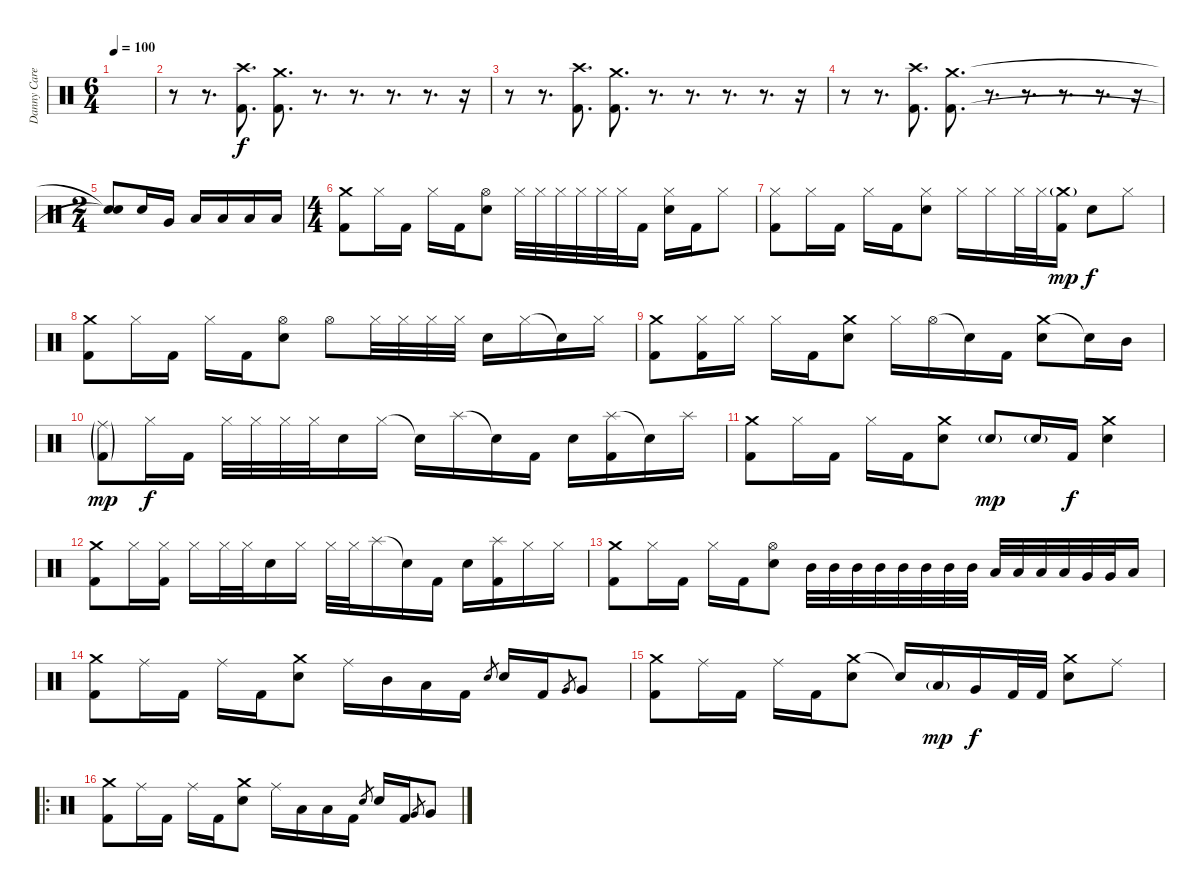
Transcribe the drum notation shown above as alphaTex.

\track ("Danny Carey" "Danny Care") {instrument percussion}
\staff {score}
\articulation defaults
\ts (6 4)
\tempo 100
\clef neutral
\ks c
|
r.8 r.8{d} ("Crash high (hit)" "Kick (hit) 2").8{d} ("Crash medium (hit)" "Kick (hit) 2").8{d} r.8{d} r.8{d} r.8{d} r.8{d} r.16 |
r.8 r.8{d} ("Crash high (hit)" "Kick (hit) 2").8{d} ("Crash medium (hit)" "Kick (hit) 2").8{d} r.8{d} r.8{d} r.8{d} r.8{d} r.16 |
r.8 r.8{d} ("Crash high (hit)" "Kick (hit) 2").8{d} ("Crash medium (hit)" "Kick (hit) 2").8{d} r.8{d} r.8{d} r.8{d} r.8{d} r.16 |
\ts (2 4)
("Snare (hit)"{t} "Snare (hit)"{t}).8 "Snare (hit) 2".16 "Very Low Tom (hit)".16 "Low Tom (hit)".16 "Low Floor Tom (hit)".16 "Low Floor Tom (hit)".16 "Low Floor Tom (hit)".16 |
\ts (4 4)
("Crash medium (hit)" "Kick (hit) 2").8 "Hi-Hat (closed)".16 "Kick (hit) 2".16 "Hi-Hat (closed)".16 "Kick (hit) 2".16 ("Hi-Hat (open)" "Snare (hit) 2").8 "Hi-Hat (closed)".32 "Hi-Hat (closed)".32 "Hi-Hat (closed)".32 "Hi-Hat (closed)".32 "Hi-Hat (closed)".32 "Hi-Hat (closed)".32 "Kick (hit) 2".16 ("Hi-Hat (closed)" "Snare (hit) 2").16 "Kick (hit) 2".16 "Hi-Hat (closed)".8 |
("Hi-Hat (closed)" "Kick (hit) 2").8 "Hi-Hat (closed)".16 "Kick (hit) 2".16 "Hi-Hat (closed)".16 "Kick (hit) 2".16 ("Hi-Hat (closed)" "Snare (hit) 2").8 "Hi-Hat (closed)".16 "Hi-Hat (closed)".16 "Hi-Hat (closed)".32 "Hi-Hat (closed)".32 ("Crash medium (hit)"{g} "Kick (hit) 2").16{dy mp} "Snare (hit) 2".8{dy f} "Hi-Hat (closed)".8 |
("Crash medium (hit)" "Kick (hit) 2").8 "Hi-Hat (closed)".16 "Kick (hit) 2".16 "Hi-Hat (closed)".16 "Kick (hit) 2".16 ("Hi-Hat (open)" "Snare (hit) 2").8 "Hi-Hat (open)".8 "Hi-Hat (closed)".32 "Hi-Hat (closed)".32 "Hi-Hat (closed)".32 "Hi-Hat (closed)".32 "Snare (hit) 2".16 "Hi-Hat (closed)".16 "Snare (hit)"{t}.16 "Hi-Hat (closed)".16 |
("Crash medium (hit)" "Kick (hit) 2").8 ("Hi-Hat (closed)" "Kick (hit) 2").16 "Hi-Hat (closed)".16 "Hi-Hat (closed)".16 "Kick (hit) 2".16 ("Crash medium (hit)" "Snare (hit) 2").8 "Hi-Hat (closed)".16 "Hi-Hat (open)".16 "Snare (hit)"{t}.16 "Kick (hit) 2".16 ("Crash medium (hit)" "Snare (hit) 2").8 "Snare (hit)"{t}.16 "Mid Tom (hit)".16 |
("Ride (middle)"{g} "Kick (hit) 2"{g}).8{dy mp} "Hi-Hat (closed)".16{dy f} "Kick (hit) 2".16 "Hi-Hat (closed)".32 "Hi-Hat (closed)".32 "Hi-Hat (closed)".32 "Hi-Hat (closed)".32 "Snare (hit) 2".16 "Hi-Hat (closed)".16 "Snare (hit)"{t}.16 "Splash (hit)".16 "Snare (hit)"{t}.16 "Kick (hit) 2".16 "Snare (hit) 2".16 ("Splash (hit)" "Kick (hit) 2").16 "Snare (hit)"{t}.16 "Splash (hit)".16 |
("Crash medium (hit)" "Kick (hit) 2").8 "Hi-Hat (closed)".16 "Kick (hit) 2".16 "Hi-Hat (closed)".16 "Kick (hit) 2".16 ("Crash medium (hit)" "Snare (hit) 2").8 "Snare (hit) 2"{g}.8{dy mp} "Snare (hit) 2"{g}.16 "Kick (hit) 2".16{dy f} ("Crash medium (hit)" "Snare (hit) 2").4 |
("Crash medium (hit)" "Kick (hit) 2").8 "Hi-Hat (closed)".16 ("Hi-Hat (closed)" "Kick (hit) 2").16 "Hi-Hat (closed)".16 "Hi-Hat (closed)".32 "Hi-Hat (closed)".32 "Snare (hit) 2".16 "Hi-Hat (closed)".16 "Hi-Hat (closed)".32 "Hi-Hat (closed)".32 "Splash (hit)".16 "Snare (hit)"{t}.16 "Kick (hit) 2".16 "Snare (hit) 2".16 ("Splash (hit)" "Kick (hit) 2").16 "Hi-Hat (closed)".16 "Hi-Hat (closed)".16 |
("Crash medium (hit)" "Kick (hit) 2").8 "Hi-Hat (closed)".16 "Kick (hit) 2".16 "Hi-Hat (closed)".16 "Kick (hit) 2".16 ("Hi-Hat (open)" "Snare (hit) 2").8 "Mid Tom (hit)".32 "Mid Tom (hit)".32 "Mid Tom (hit)".32 "Mid Tom (hit)".32 "Mid Tom (hit)".32 "Mid Tom (hit)".32 "Mid Tom (hit)".32 "Mid Tom (hit)".32 "Low Tom (hit)".32 "Low Tom (hit)".32 "Low Tom (hit)".32 "Low Tom (hit)".32 "Very Low Tom (hit)".32 "Very Low Tom (hit)".32 "Low Floor Tom (hit)".16 |
("Crash medium (hit)" "Kick (hit) 2").8 "Ride (middle)".16 "Kick (hit) 2".16 "Ride (middle)".16 "Kick (hit) 2".16 ("Crash medium (hit)" "Snare (hit) 2").8 "Ride (middle)".16 "Mid Tom (hit)".16 "Low Tom (hit)".16 "Kick (hit) 2".16 "Snare (hit) 2".8{gr} "Snare (hit) 2".16 "Kick (hit) 2".16 "Very Low Tom (hit)".8{gr} "Very Low Tom (hit)".8 |
("Crash medium (hit)" "Kick (hit) 2").8 "Ride (middle)".16 "Kick (hit) 2".16 "Ride (middle)".16 "Kick (hit) 2".16 ("Crash medium (hit)" "Snare (hit) 2").8 "Snare (hit)"{t}.16 "Low Tom (hit)"{g}.16{dy mp} "Very Low Tom (hit)".16{dy f} "Kick (hit) 2".32 "Kick (hit) 2".32 ("Crash medium (hit)" "Snare (hit) 2").8 "Ride (middle)".8 |
\ro
("Crash medium (hit)" "Kick (hit) 2").8 "Ride (middle)".16 "Kick (hit) 2".16 "Ride (middle)".16 "Kick (hit) 2".16 ("Crash medium (hit)" "Snare (hit) 2").8 "Ride (middle)".16 "Low Tom (hit)".16 "Low Tom (hit)".16 "Kick (hit) 2".16 "Snare (hit) 2".8{gr} "Snare (hit) 2".16 "Kick (hit) 2".16 "Very Low Tom (hit)".8{gr} "Very Low Tom (hit)".8
